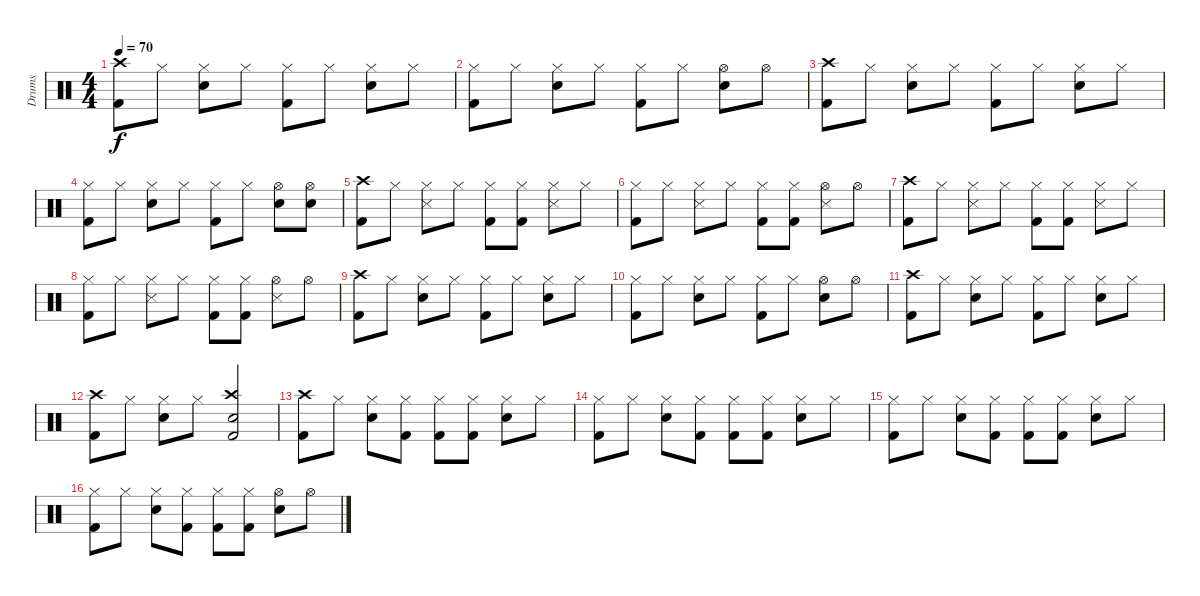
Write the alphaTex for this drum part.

\track ("Drums" "Drums") {instrument percussion}
\staff {score}
\articulation defaults
\ts (4 4)
\tempo 70
\clef neutral
\ks c
("Kick (hit) 2" "Crash high (hit)").8{dy f} "Hi-Hat (closed)".8 ("Hi-Hat (closed)" "Electric Snare (hit)").8 "Hi-Hat (closed)".8 ("Hi-Hat (closed)" "Kick (hit) 2").8 "Hi-Hat (closed)".8 ("Hi-Hat (closed)" "Electric Snare (hit)").8 "Hi-Hat (closed)".8 |
("Kick (hit) 2" "Hi-Hat (closed)").8 "Hi-Hat (closed)".8 ("Hi-Hat (closed)" "Electric Snare (hit)").8 "Hi-Hat (closed)".8 ("Hi-Hat (closed)" "Kick (hit) 2").8 "Hi-Hat (closed)".8 ("Hi-Hat (open)" "Electric Snare (hit)").8 "Hi-Hat (open)".8 |
("Kick (hit) 2" "Crash high (hit)").8 "Hi-Hat (closed)".8 ("Hi-Hat (closed)" "Electric Snare (hit)").8 "Hi-Hat (closed)".8 ("Hi-Hat (closed)" "Kick (hit) 2").8 "Hi-Hat (closed)".8 ("Hi-Hat (closed)" "Electric Snare (hit)").8 "Hi-Hat (closed)".8 |
("Kick (hit) 2" "Hi-Hat (closed)").8 "Hi-Hat (closed)".8 ("Hi-Hat (closed)" "Electric Snare (hit)").8 "Hi-Hat (closed)".8 ("Hi-Hat (closed)" "Kick (hit) 2").8 "Hi-Hat (closed)".8 ("Hi-Hat (open)" "Electric Snare (hit)").8 ("Hi-Hat (open)" "Electric Snare (hit)").8 |
("Crash high (hit)" "Kick (hit) 2").8 "Hi-Hat (closed)".8 ("Hi-Hat (closed)" "Snare (side stick) 3").8 "Hi-Hat (closed)".8 ("Hi-Hat (closed)" "Kick (hit) 2").8 ("Hi-Hat (closed)" "Kick (hit) 2").8 ("Hi-Hat (closed)" "Snare (side stick) 3").8 "Hi-Hat (closed)".8 |
("Hi-Hat (closed)" "Kick (hit) 2").8 "Hi-Hat (closed)".8 ("Hi-Hat (closed)" "Snare (side stick) 3").8 "Hi-Hat (closed)".8 ("Hi-Hat (closed)" "Kick (hit) 2").8 ("Hi-Hat (closed)" "Kick (hit) 2").8 ("Hi-Hat (open)" "Snare (side stick) 3").8 "Hi-Hat (open)".8 |
("Crash high (hit)" "Kick (hit) 2").8 "Hi-Hat (closed)".8 ("Hi-Hat (closed)" "Snare (side stick) 3").8 "Hi-Hat (closed)".8 ("Hi-Hat (closed)" "Kick (hit) 2").8 ("Hi-Hat (closed)" "Kick (hit) 2").8 ("Snare (side stick) 3" "Hi-Hat (closed)").8 "Hi-Hat (closed)".8 |
("Hi-Hat (closed)" "Kick (hit) 2").8 "Hi-Hat (closed)".8 ("Hi-Hat (closed)" "Snare (side stick) 3").8 "Hi-Hat (closed)".8 ("Hi-Hat (closed)" "Kick (hit) 2").8 ("Hi-Hat (closed)" "Kick (hit) 2").8 ("Hi-Hat (open)" "Snare (side stick) 3").8 "Hi-Hat (open)".8 |
("Kick (hit) 2" "Crash high (hit)").8 "Hi-Hat (closed)".8 ("Hi-Hat (closed)" "Electric Snare (hit)").8 "Hi-Hat (closed)".8 ("Hi-Hat (closed)" "Kick (hit) 2").8 "Hi-Hat (closed)".8 ("Hi-Hat (closed)" "Electric Snare (hit)").8 "Hi-Hat (closed)".8 |
("Kick (hit) 2" "Hi-Hat (closed)").8 "Hi-Hat (closed)".8 ("Hi-Hat (closed)" "Electric Snare (hit)").8 "Hi-Hat (closed)".8 ("Hi-Hat (closed)" "Kick (hit) 2").8 "Hi-Hat (closed)".8 ("Hi-Hat (open)" "Electric Snare (hit)").8 "Hi-Hat (open)".8 |
("Kick (hit) 2" "Crash high (hit)").8 "Hi-Hat (closed)".8 ("Hi-Hat (closed)" "Electric Snare (hit)").8 "Hi-Hat (closed)".8 ("Hi-Hat (closed)" "Kick (hit) 2").8 "Hi-Hat (closed)".8 ("Hi-Hat (closed)" "Electric Snare (hit)").8 "Hi-Hat (closed)".8 |
("Kick (hit) 2" "Crash high (hit)").8 "Hi-Hat (closed)".8 ("Hi-Hat (closed)" "Electric Snare (hit)").8 "Hi-Hat (closed)".8 ("Crash high (hit)" "Electric Snare (hit)" "Kick (hit) 2").2 |
("Crash high (hit)" "Kick (hit) 2").8 "Hi-Hat (closed)".8 ("Hi-Hat (closed)" "Electric Snare (hit)").8 ("Hi-Hat (closed)" "Kick (hit) 2").8 ("Kick (hit) 2" "Hi-Hat (closed)").8 ("Hi-Hat (closed)" "Kick (hit) 2").8 ("Hi-Hat (closed)" "Electric Snare (hit)").8 "Hi-Hat (closed)".8 |
("Hi-Hat (closed)" "Kick (hit) 2").8 "Hi-Hat (closed)".8 ("Hi-Hat (closed)" "Electric Snare (hit)").8 ("Hi-Hat (closed)" "Kick (hit) 2").8 ("Kick (hit) 2" "Hi-Hat (closed)").8 ("Hi-Hat (closed)" "Kick (hit) 2").8 ("Hi-Hat (closed)" "Electric Snare (hit)").8 "Hi-Hat (closed)".8 |
("Hi-Hat (closed)" "Kick (hit) 2").8 "Hi-Hat (closed)".8 ("Hi-Hat (closed)" "Electric Snare (hit)").8 ("Hi-Hat (closed)" "Kick (hit) 2").8 ("Kick (hit) 2" "Hi-Hat (closed)").8 ("Hi-Hat (closed)" "Kick (hit) 2").8 ("Hi-Hat (closed)" "Electric Snare (hit)").8 "Hi-Hat (closed)".8 |
("Hi-Hat (closed)" "Kick (hit) 2").8 "Hi-Hat (closed)".8 ("Hi-Hat (closed)" "Electric Snare (hit)").8 ("Hi-Hat (closed)" "Kick (hit) 2").8 ("Kick (hit) 2" "Hi-Hat (closed)").8 ("Hi-Hat (closed)" "Kick (hit) 2").8 ("Hi-Hat (open)" "Electric Snare (hit)").8 "Hi-Hat (open)".8
